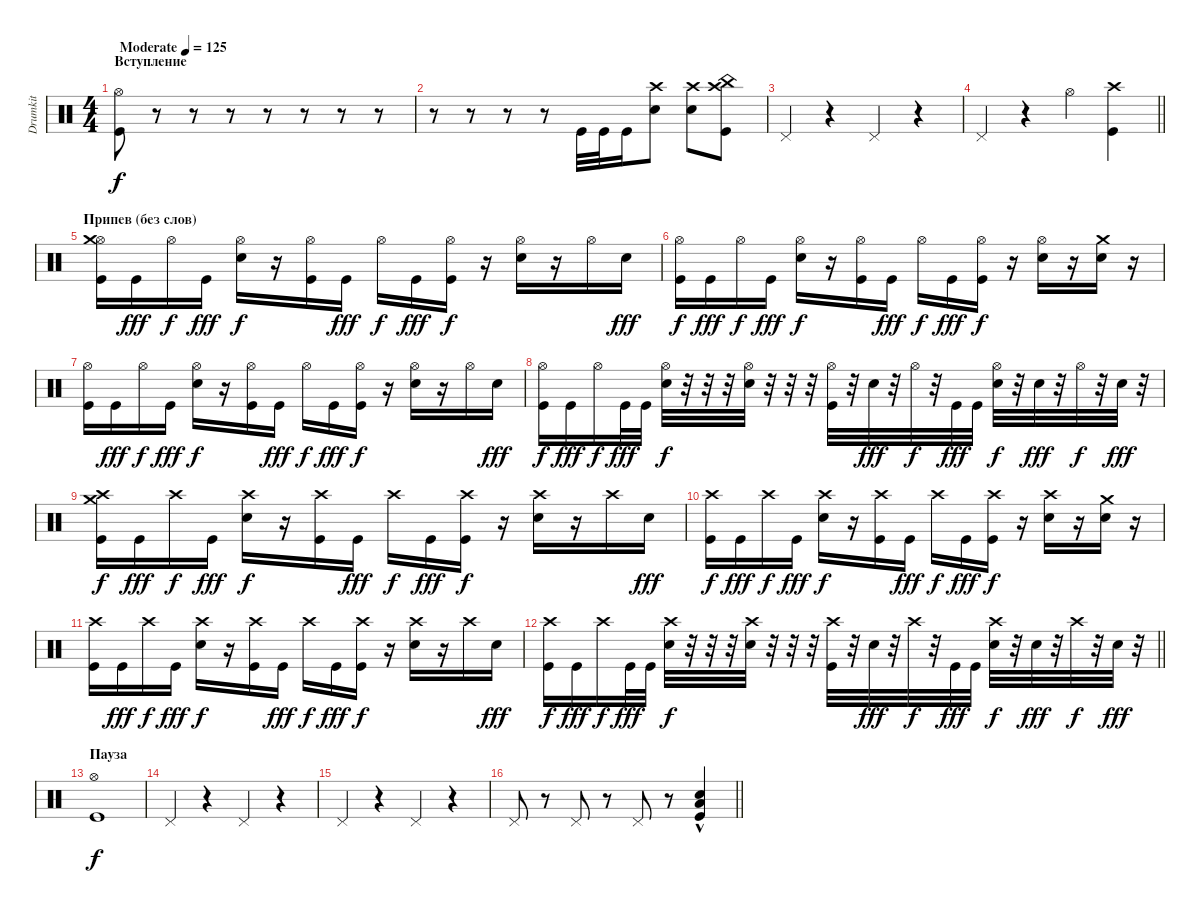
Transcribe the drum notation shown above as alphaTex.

\track ("Drumkit" "Drumkit") {instrument percussion}
\staff {score}
\articulation defaults
\ts (4 4)
\section ("" "Вступление")
\tempo (125 "Moderate")
\clef neutral
\ks c
("Hi-Hat (open)" "Kick (hit)").8{dy f} r.8 r.8 r.8 r.8 r.8 r.8 r.8 |
r.8 r.8 r.8 r.8 "Kick (hit)".32 "Kick (hit)".32 "Kick (hit)".16 ("Snare (hit) 2" "Crash high (hit)").8 ("Snare (hit) 2" "Crash high (hit)").8 ("China (hit)" "Crash high (hit)" "Kick (hit)").8 |
"Pedal Hi-Hat (hit)".4 r.4 "Pedal Hi-Hat (hit)".4 r.4 |
\barLineRight lightlight "Pedal Hi-Hat (hit)".4
r.4 "Hi-Hat (open)".4 ("Kick (hit)" "Crash high (hit)").4 |
\section ("" "Припев (без слов)")
("Hi-Hat (open)" "Crash medium (hit)" "Kick (hit)").16 "Kick (hit)".16{dy fff} "Hi-Hat (open)".16{dy f} "Kick (hit)".16{dy fff} ("Hi-Hat (open)" "Snare (hit) 2").16{dy f} r.16 ("Hi-Hat (open)" "Kick (hit)").16 "Kick (hit)".16{dy fff} "Hi-Hat (open)".16{dy f} "Kick (hit)".16{dy fff} ("Hi-Hat (open)" "Kick (hit)").16{dy f} r.16 ("Hi-Hat (open)" "Snare (hit) 2").16 r.16 "Hi-Hat (open)".16 "Snare (hit) 2".16{dy fff} |
("Hi-Hat (open)" "Kick (hit)").16{dy f} "Kick (hit)".16{dy fff} "Hi-Hat (open)".16{dy f} "Kick (hit)".16{dy fff} ("Hi-Hat (open)" "Snare (hit) 2").16{dy f} r.16 ("Hi-Hat (open)" "Kick (hit)").16 "Kick (hit)".16{dy fff} "Hi-Hat (open)".16{dy f} "Kick (hit)".16{dy fff} ("Hi-Hat (open)" "Kick (hit)").16{dy f} r.16 ("Hi-Hat (open)" "Snare (hit) 2").16 r.16 ("Crash medium (hit)" "Snare (hit) 2").16 r.16 |
("Hi-Hat (open)" "Kick (hit)").16 "Kick (hit)".16{dy fff} "Hi-Hat (open)".16{dy f} "Kick (hit)".16{dy fff} ("Hi-Hat (open)" "Snare (hit) 2").16{dy f} r.16 ("Hi-Hat (open)" "Kick (hit)").16 "Kick (hit)".16{dy fff} "Hi-Hat (open)".16{dy f} "Kick (hit)".16{dy fff} ("Hi-Hat (open)" "Kick (hit)").16{dy f} r.16 ("Hi-Hat (open)" "Snare (hit) 2").16 r.16 "Hi-Hat (open)".16 "Snare (hit) 2".16{dy fff} |
("Hi-Hat (open)" "Kick (hit)").16{dy f} "Kick (hit)".16{dy fff} "Hi-Hat (open)".16{dy f} "Kick (hit)".32{dy fff} "Kick (hit)".32 ("Hi-Hat (open)" "Snare (hit) 2").32{dy f} r.32 r.32 r.32 ("Hi-Hat (open)" "Snare (hit) 2").32 r.32 r.32 r.32 ("Hi-Hat (open)" "Kick (hit)").32 r.32 "Snare (hit) 2".32{dy fff} r.32 "Hi-Hat (open)".32{dy f} r.32 "Kick (hit)".32{dy fff} "Kick (hit)".32 ("Hi-Hat (open)" "Snare (hit) 2").32{dy f} r.32 "Snare (hit) 2".32{dy fff} r.32 "Hi-Hat (open)".32{dy f} r.32 "Snare (hit) 2".32{dy fff} r.32 |
("Crash high (hit)" "Crash medium (hit)" "Kick (hit)").16{dy f} "Kick (hit)".16{dy fff} "Crash high (hit)".16{dy f} "Kick (hit)".16{dy fff} ("Crash high (hit)" "Snare (hit) 2").16{dy f} r.16 ("Crash high (hit)" "Kick (hit)").16 "Kick (hit)".16{dy fff} "Crash high (hit)".16{dy f} "Kick (hit)".16{dy fff} ("Crash high (hit)" "Kick (hit)").16{dy f} r.16 ("Crash high (hit)" "Snare (hit) 2").16 r.16 "Crash high (hit)".16 "Snare (hit) 2".16{dy fff} |
("Crash high (hit)" "Kick (hit)").16{dy f} "Kick (hit)".16{dy fff} "Crash high (hit)".16{dy f} "Kick (hit)".16{dy fff} ("Crash high (hit)" "Snare (hit) 2").16{dy f} r.16 ("Crash high (hit)" "Kick (hit)").16 "Kick (hit)".16{dy fff} "Crash high (hit)".16{dy f} "Kick (hit)".16{dy fff} ("Crash high (hit)" "Kick (hit)").16{dy f} r.16 ("Crash high (hit)" "Snare (hit) 2").16 r.16 ("Crash medium (hit)" "Snare (hit) 2").16 r.16 |
("Crash high (hit)" "Kick (hit)").16 "Kick (hit)".16{dy fff} "Crash high (hit)".16{dy f} "Kick (hit)".16{dy fff} ("Crash high (hit)" "Snare (hit) 2").16{dy f} r.16 ("Crash high (hit)" "Kick (hit)").16 "Kick (hit)".16{dy fff} "Crash high (hit)".16{dy f} "Kick (hit)".16{dy fff} ("Crash high (hit)" "Kick (hit)").16{dy f} r.16 ("Crash high (hit)" "Snare (hit) 2").16 r.16 "Crash high (hit)".16 "Snare (hit) 2".16{dy fff} |
\barLineRight lightlight
("Crash high (hit)" "Kick (hit)").16{dy f} "Kick (hit)".16{dy fff} "Crash high (hit)".16{dy f} "Kick (hit)".32{dy fff} "Kick (hit)".32 ("Crash high (hit)" "Snare (hit) 2").32{dy f} r.32 r.32 r.32 ("Crash high (hit)" "Snare (hit) 2").32 r.32 r.32 r.32 ("Crash high (hit)" "Kick (hit)").32 r.32 "Snare (hit) 2".32{dy fff} r.32 "Crash high (hit)".32{dy f} r.32 "Kick (hit)".32{dy fff} "Kick (hit)".32 ("Crash high (hit)" "Snare (hit) 2").32{dy f} r.32 "Snare (hit) 2".32{dy fff} r.32 "Crash high (hit)".32{dy f} r.32 "Snare (hit) 2".32{dy fff} r.32 |
\section ("" "Пауза")
("Kick (hit)" "Hi-Hat (open)").1{dy f} |
"Pedal Hi-Hat (hit)".4 r.4 "Pedal Hi-Hat (hit)".4 r.4 |
"Pedal Hi-Hat (hit)".4 r.4 "Pedal Hi-Hat (hit)".4 r.4 |
\barLineRight lightlight "Pedal Hi-Hat (hit)".8
r.8 "Pedal Hi-Hat (hit)".8 r.8 "Pedal Hi-Hat (hit)".8 r.8 ("Snare (hit) 2"{hac} "Low Floor Tom (hit)"{hac} "Kick (hit)"{hac}).4
